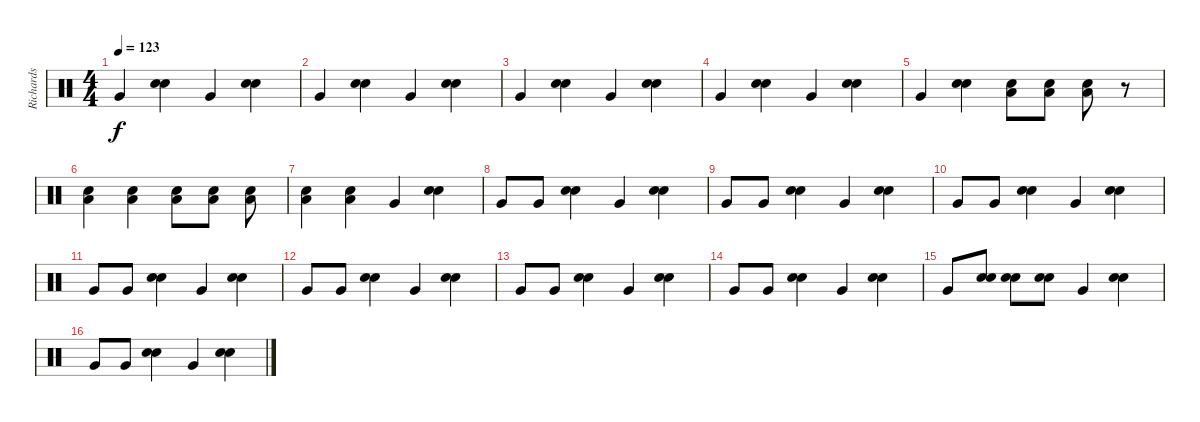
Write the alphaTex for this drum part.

\track ("Richards" "Richards") {instrument percussion}
\staff {score}
\articulation defaults
\ts (4 4)
\tempo 123
\clef neutral
\ks c "Very Low Tom (hit)".4{dy f}
("Snare (hit) 2" "Electric Snare (hit)").4 "Very Low Tom (hit)".4 ("Snare (hit) 2" "Electric Snare (hit)").4 |
"Very Low Tom (hit)".4 ("Snare (hit) 2" "Electric Snare (hit)").4 "Very Low Tom (hit)".4 ("Snare (hit) 2" "Electric Snare (hit)").4 |
"Very Low Tom (hit)".4 ("Snare (hit) 2" "Electric Snare (hit)").4 "Very Low Tom (hit)".4 ("Snare (hit) 2" "Electric Snare (hit)").4 |
"Very Low Tom (hit)".4 ("Snare (hit) 2" "Electric Snare (hit)").4 "Very Low Tom (hit)".4 ("Snare (hit) 2" "Electric Snare (hit)").4 |
"Very Low Tom (hit)".4 ("Snare (hit) 2" "Electric Snare (hit)").4 ("Low Floor Tom (hit)" "Electric Snare (hit)").8 ("Low Floor Tom (hit)" "Electric Snare (hit)").8 ("Low Floor Tom (hit)" "Electric Snare (hit)").8 r.8 |
("Low Floor Tom (hit)" "Electric Snare (hit)").4 ("Low Floor Tom (hit)" "Electric Snare (hit)").4 ("Low Floor Tom (hit)" "Electric Snare (hit)").8 ("Low Floor Tom (hit)" "Electric Snare (hit)").8 ("Low Floor Tom (hit)" "Electric Snare (hit)").8 |
("Low Floor Tom (hit)" "Electric Snare (hit)").4 ("Low Floor Tom (hit)" "Electric Snare (hit)").4 "Very Low Tom (hit)".4 ("Snare (hit) 2" "Electric Snare (hit)").4 |
"Very Low Tom (hit)".8 "Very Low Tom (hit)".8 ("Snare (hit) 2" "Electric Snare (hit)").4 "Very Low Tom (hit)".4 ("Snare (hit) 2" "Electric Snare (hit)").4 |
"Very Low Tom (hit)".8 "Very Low Tom (hit)".8 ("Snare (hit) 2" "Electric Snare (hit)").4 "Very Low Tom (hit)".4 ("Snare (hit) 2" "Electric Snare (hit)").4 |
"Very Low Tom (hit)".8 "Very Low Tom (hit)".8 ("Snare (hit) 2" "Electric Snare (hit)").4 "Very Low Tom (hit)".4 ("Snare (hit) 2" "Electric Snare (hit)").4 |
"Very Low Tom (hit)".8 "Very Low Tom (hit)".8 ("Snare (hit) 2" "Electric Snare (hit)").4 "Very Low Tom (hit)".4 ("Snare (hit) 2" "Electric Snare (hit)").4 |
"Very Low Tom (hit)".8 "Very Low Tom (hit)".8 ("Snare (hit) 2" "Electric Snare (hit)").4 "Very Low Tom (hit)".4 ("Snare (hit) 2" "Electric Snare (hit)").4 |
"Very Low Tom (hit)".8 "Very Low Tom (hit)".8 ("Snare (hit) 2" "Electric Snare (hit)").4 "Very Low Tom (hit)".4 ("Snare (hit) 2" "Electric Snare (hit)").4 |
"Very Low Tom (hit)".8 "Very Low Tom (hit)".8 ("Snare (hit) 2" "Electric Snare (hit)").4 "Very Low Tom (hit)".4 ("Snare (hit) 2" "Electric Snare (hit)").4 |
"Very Low Tom (hit)".8 ("Snare (hit) 2" "Electric Snare (hit)").8 ("Snare (hit) 2" "Electric Snare (hit)").8 ("Snare (hit) 2" "Electric Snare (hit)").8 "Very Low Tom (hit)".4 ("Snare (hit) 2" "Electric Snare (hit)").4 |
"Very Low Tom (hit)".8 "Very Low Tom (hit)".8 ("Snare (hit) 2" "Electric Snare (hit)").4 "Very Low Tom (hit)".4 ("Snare (hit) 2" "Electric Snare (hit)").4
